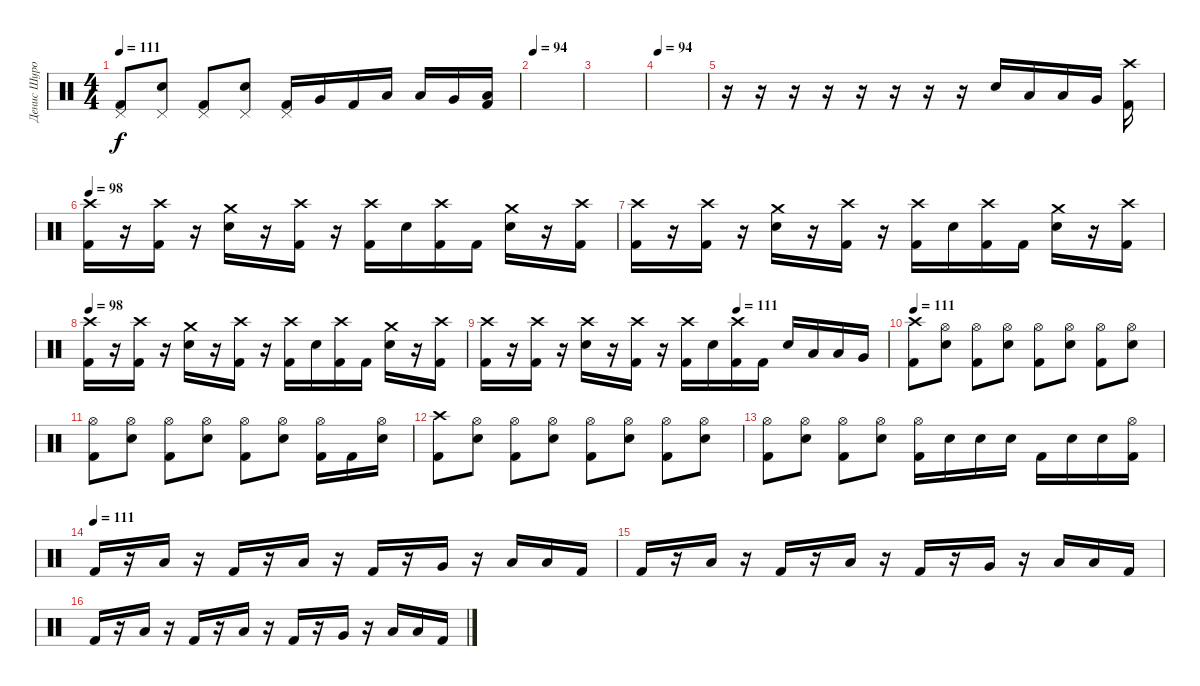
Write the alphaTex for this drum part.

\track ("Денис Шуров" "Денис Шуро") {instrument percussion}
\staff {score}
\articulation defaults
\ts (4 4)
\tempo 111
\clef neutral
\ks c
("Pedal Hi-Hat (hit)" "Kick (hit) 2").8{dy f} ("Pedal Hi-Hat (hit)" "Electric Snare (hit)").8 ("Pedal Hi-Hat (hit)" "Kick (hit) 2").8 ("Pedal Hi-Hat (hit)" "Electric Snare (hit)").8 ("Pedal Hi-Hat (hit)" "Kick (hit) 2").16 "Very Low Tom (hit)".16 "Kick (hit) 2".16 "Low Tom (hit)".16 "Low Tom (hit)".16 "Very Low Tom (hit)".16 ("Low Tom (hit)" "Kick (hit) 2").16 |
\tempo 94
|
|
\tempo 94
|
r.16 r.16 r.16 r.16 r.16 r.16 r.16 r.16 "Electric Snare (hit)".16 "Low Tom (hit)".16 "Low Tom (hit)".16 "Very Low Tom (hit)".16 ("Crash high (hit)" "Kick (hit) 2").16 |
\tempo 98
("Crash high (hit)" "Kick (hit) 2").16 r.16 ("Crash high (hit)" "Kick (hit) 2").16 r.16 ("Crash medium (hit)" "Electric Snare (hit)").16 r.16 ("Crash high (hit)" "Kick (hit) 2").16 r.16 ("Crash high (hit)" "Kick (hit) 2").16 "Electric Snare (hit)".16 ("Crash high (hit)" "Kick (hit) 2").16 "Kick (hit) 2".16 ("Crash medium (hit)" "Electric Snare (hit)").16 r.16 ("Crash high (hit)" "Kick (hit) 2").16 |
("Crash high (hit)" "Kick (hit) 2").16 r.16 ("Crash high (hit)" "Kick (hit) 2").16 r.16 ("Crash medium (hit)" "Electric Snare (hit)").16 r.16 ("Crash high (hit)" "Kick (hit) 2").16 r.16 ("Crash high (hit)" "Kick (hit) 2").16 "Electric Snare (hit)".16 ("Crash high (hit)" "Kick (hit) 2").16 "Kick (hit) 2".16 ("Crash medium (hit)" "Electric Snare (hit)").16 r.16 ("Crash high (hit)" "Kick (hit) 2").16 |
\tempo 98
("Crash high (hit)" "Kick (hit) 2").16 r.16 ("Crash high (hit)" "Kick (hit) 2").16 r.16 ("Crash medium (hit)" "Electric Snare (hit)").16 r.16 ("Crash high (hit)" "Kick (hit) 2").16 r.16 ("Crash high (hit)" "Kick (hit) 2").16 "Electric Snare (hit)".16 ("Crash high (hit)" "Kick (hit) 2").16 "Kick (hit) 2".16 ("Crash medium (hit)" "Electric Snare (hit)").16 r.16 ("Crash high (hit)" "Kick (hit) 2").16 |
\tempo (111 0.625)
("Crash high (hit)" "Kick (hit) 2").16 r.16 ("Crash high (hit)" "Kick (hit) 2").16 r.16 ("Crash high (hit)" "Electric Snare (hit)").16 r.16 ("Crash high (hit)" "Kick (hit) 2").16 r.16 ("Crash high (hit)" "Kick (hit) 2").16 "Electric Snare (hit)".16 ("Crash high (hit)" "Kick (hit) 2").16 "Kick (hit) 2".16 "Electric Snare (hit)".16 "Low Tom (hit)".16 "Low Tom (hit)".16 "Very Low Tom (hit)".16 |
\tempo 111
("Crash high (hit)" "Kick (hit) 2").8 ("Hi-Hat (open)" "Electric Snare (hit)").8 ("Hi-Hat (open)" "Kick (hit) 2").8 ("Hi-Hat (open)" "Electric Snare (hit)").8 ("Hi-Hat (open)" "Kick (hit) 2").8 ("Hi-Hat (open)" "Electric Snare (hit)").8 ("Hi-Hat (open)" "Kick (hit) 2").8 ("Hi-Hat (open)" "Electric Snare (hit)").8 |
("Hi-Hat (open)" "Kick (hit) 2").8 ("Hi-Hat (open)" "Electric Snare (hit)").8 ("Hi-Hat (open)" "Kick (hit) 2").8 ("Hi-Hat (open)" "Electric Snare (hit)").8 ("Hi-Hat (open)" "Kick (hit) 2").8 ("Hi-Hat (open)" "Electric Snare (hit)").8 ("Hi-Hat (open)" "Kick (hit) 2").16 "Kick (hit) 2".16 ("Hi-Hat (open)" "Electric Snare (hit)").16 |
("Crash high (hit)" "Kick (hit) 2").8 ("Hi-Hat (open)" "Electric Snare (hit)").8 ("Hi-Hat (open)" "Kick (hit) 2").8 ("Hi-Hat (open)" "Electric Snare (hit)").8 ("Hi-Hat (open)" "Kick (hit) 2").8 ("Hi-Hat (open)" "Electric Snare (hit)").8 ("Hi-Hat (open)" "Kick (hit) 2").8 ("Hi-Hat (open)" "Electric Snare (hit)").8 |
("Hi-Hat (open)" "Kick (hit) 2").8 ("Hi-Hat (open)" "Electric Snare (hit)").8 ("Hi-Hat (open)" "Kick (hit) 2").8 ("Hi-Hat (open)" "Electric Snare (hit)").8 ("Hi-Hat (open)" "Kick (hit) 2").16 "Electric Snare (hit)".16 "Electric Snare (hit)".16 "Electric Snare (hit)".16 "Kick (hit) 2".16 "Electric Snare (hit)".16 "Electric Snare (hit)".16 ("Hi-Hat (open)" "Kick (hit) 2").16 |
\tempo (111)
"Kick (hit) 2".16 r.16 "Low Tom (hit)".16 r.16 "Kick (hit) 2".16 r.16 "Low Tom (hit)".16 r.16 "Kick (hit) 2".16 r.16 "Very Low Tom (hit)".16 r.16 "Low Tom (hit)".16 "Low Tom (hit)".16 "Kick (hit) 2".16 |
"Kick (hit) 2".16 r.16 "Low Tom (hit)".16 r.16 "Kick (hit) 2".16 r.16 "Low Tom (hit)".16 r.16 "Kick (hit) 2".16 r.16 "Very Low Tom (hit)".16 r.16 "Low Tom (hit)".16 "Low Tom (hit)".16 "Kick (hit) 2".16 |
"Kick (hit) 2".16 r.16 "Low Tom (hit)".16 r.16 "Kick (hit) 2".16 r.16 "Low Tom (hit)".16 r.16 "Kick (hit) 2".16 r.16 "Very Low Tom (hit)".16 r.16 "Low Tom (hit)".16 "Low Tom (hit)".16 "Kick (hit) 2".16
